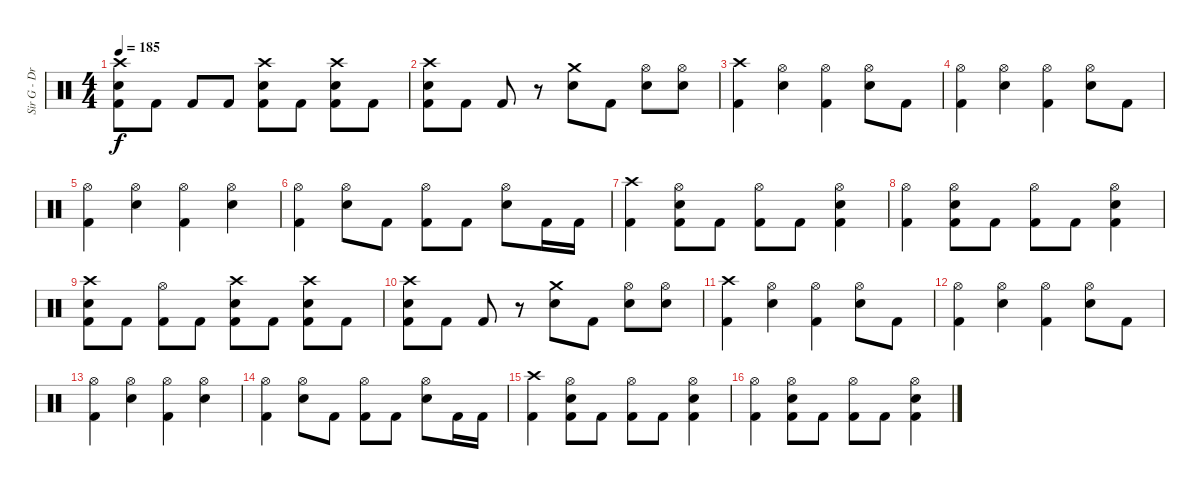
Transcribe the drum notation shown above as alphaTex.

\track ("Sir G - Drums" "Sir G - Dr") {instrument percussion}
\staff {score}
\articulation defaults
\ts (4 4)
\tempo 185
\clef neutral
\ks c
("Kick (hit) 2" "Electric Snare (hit)" "Crash high (hit)").8{dy f} "Kick (hit) 2".8 "Kick (hit) 2".8 "Kick (hit) 2".8 ("Kick (hit) 2" "Electric Snare (hit)" "Crash high (hit)").8 "Kick (hit) 2".8 ("Kick (hit) 2" "Electric Snare (hit)" "Crash high (hit)").8 "Kick (hit) 2".8 |
("Kick (hit) 2" "Electric Snare (hit)" "Crash high (hit)").8 "Kick (hit) 2".8 "Kick (hit) 2".8 r.8 ("Electric Snare (hit)" "Crash medium (hit)").8 "Kick (hit) 2".8 ("Electric Snare (hit)" "Hi-Hat (open)").8 ("Electric Snare (hit)" "Hi-Hat (open)").8 |
("Kick (hit) 2" "Crash high (hit)").4 ("Electric Snare (hit)" "Hi-Hat (open)").4 ("Kick (hit) 2" "Hi-Hat (open)").4 ("Electric Snare (hit)" "Hi-Hat (open)").8 "Kick (hit) 2".8 |
("Kick (hit) 2" "Hi-Hat (open)").4 ("Electric Snare (hit)" "Hi-Hat (open)").4 ("Kick (hit) 2" "Hi-Hat (open)").4 ("Electric Snare (hit)" "Hi-Hat (open)").8 "Kick (hit) 2".8 |
("Kick (hit) 2" "Hi-Hat (open)").4 ("Electric Snare (hit)" "Hi-Hat (open)").4 ("Kick (hit) 2" "Hi-Hat (open)").4 ("Electric Snare (hit)" "Hi-Hat (open)").4 |
("Kick (hit) 2" "Hi-Hat (open)").4 ("Electric Snare (hit)" "Hi-Hat (open)").8 "Kick (hit) 2".8 ("Kick (hit) 2" "Hi-Hat (open)").8 "Kick (hit) 2".8 ("Electric Snare (hit)" "Hi-Hat (open)").8 "Kick (hit) 2".16 "Kick (hit) 2".16 |
("Kick (hit) 2" "Crash high (hit)").4 ("Kick (hit) 2" "Electric Snare (hit)" "Hi-Hat (open)").8 "Kick (hit) 2".8 ("Kick (hit) 2" "Hi-Hat (open)").8 "Kick (hit) 2".8 ("Kick (hit) 2" "Electric Snare (hit)" "Hi-Hat (open)").4 |
("Kick (hit) 2" "Hi-Hat (open)").4 ("Kick (hit) 2" "Electric Snare (hit)" "Hi-Hat (open)").8 "Kick (hit) 2".8 ("Kick (hit) 2" "Hi-Hat (open)").8 "Kick (hit) 2".8 ("Kick (hit) 2" "Electric Snare (hit)" "Hi-Hat (open)").4 |
("Kick (hit) 2" "Electric Snare (hit)" "Crash high (hit)").8 "Kick (hit) 2".8 ("Kick (hit) 2" "Hi-Hat (open)").8 "Kick (hit) 2".8 ("Kick (hit) 2" "Electric Snare (hit)" "Crash high (hit)").8 "Kick (hit) 2".8 ("Kick (hit) 2" "Electric Snare (hit)" "Crash high (hit)").8 "Kick (hit) 2".8 |
("Kick (hit) 2" "Electric Snare (hit)" "Crash high (hit)").8 "Kick (hit) 2".8 "Kick (hit) 2".8 r.8 ("Electric Snare (hit)" "Crash medium (hit)").8 "Kick (hit) 2".8 ("Electric Snare (hit)" "Hi-Hat (open)").8 ("Electric Snare (hit)" "Hi-Hat (open)").8 |
("Kick (hit) 2" "Crash high (hit)").4 ("Electric Snare (hit)" "Hi-Hat (open)").4 ("Kick (hit) 2" "Hi-Hat (open)").4 ("Electric Snare (hit)" "Hi-Hat (open)").8 "Kick (hit) 2".8 |
("Kick (hit) 2" "Hi-Hat (open)").4 ("Electric Snare (hit)" "Hi-Hat (open)").4 ("Kick (hit) 2" "Hi-Hat (open)").4 ("Electric Snare (hit)" "Hi-Hat (open)").8 "Kick (hit) 2".8 |
("Kick (hit) 2" "Hi-Hat (open)").4 ("Electric Snare (hit)" "Hi-Hat (open)").4 ("Kick (hit) 2" "Hi-Hat (open)").4 ("Electric Snare (hit)" "Hi-Hat (open)").4 |
("Kick (hit) 2" "Hi-Hat (open)").4 ("Electric Snare (hit)" "Hi-Hat (open)").8 "Kick (hit) 2".8 ("Kick (hit) 2" "Hi-Hat (open)").8 "Kick (hit) 2".8 ("Electric Snare (hit)" "Hi-Hat (open)").8 "Kick (hit) 2".16 "Kick (hit) 2".16 |
("Kick (hit) 2" "Crash high (hit)").4 ("Kick (hit) 2" "Electric Snare (hit)" "Hi-Hat (open)").8 "Kick (hit) 2".8 ("Kick (hit) 2" "Hi-Hat (open)").8 "Kick (hit) 2".8 ("Kick (hit) 2" "Electric Snare (hit)" "Hi-Hat (open)").4 |
("Kick (hit) 2" "Hi-Hat (open)").4 ("Kick (hit) 2" "Electric Snare (hit)" "Hi-Hat (open)").8 "Kick (hit) 2".8 ("Kick (hit) 2" "Hi-Hat (open)").8 "Kick (hit) 2".8 ("Kick (hit) 2" "Electric Snare (hit)" "Hi-Hat (open)").4
